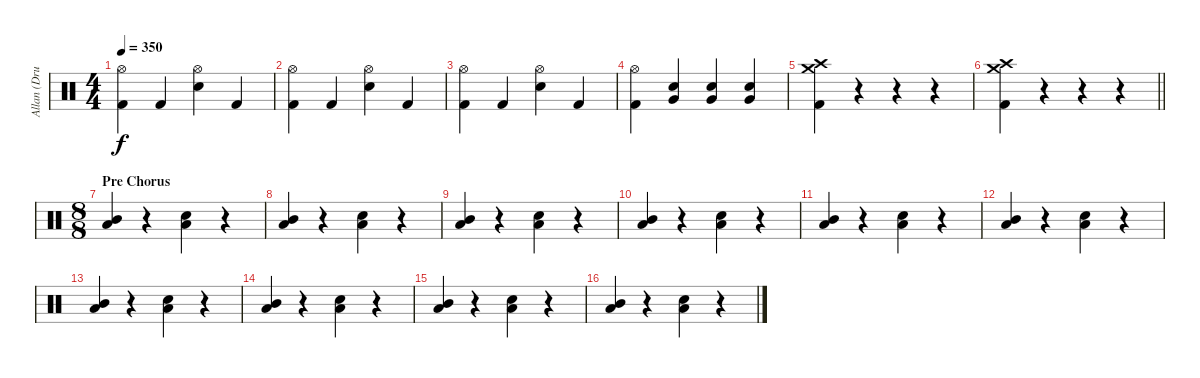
\track ("Allan (Drums)" "Allan (Dru") {solo instrument percussion}
\staff {score}
\articulation defaults
\ts (4 4)
\tempo 350
\clef neutral
\ks c
("Hi-Hat (open)" "Kick (hit) 2").4{dy f} "Kick (hit) 2".4 ("Hi-Hat (open)" "Snare (hit) 2").4 "Kick (hit) 2".4 |
("Hi-Hat (open)" "Kick (hit) 2").4 "Kick (hit) 2".4 ("Hi-Hat (open)" "Snare (hit) 2").4 "Kick (hit) 2".4 |
("Hi-Hat (open)" "Kick (hit) 2").4 "Kick (hit) 2".4 ("Hi-Hat (open)" "Snare (hit) 2").4 "Kick (hit) 2".4 |
("Hi-Hat (open)" "Kick (hit) 2").4 ("Very Low Tom (hit)" "Snare (hit) 2").4 ("Very Low Tom (hit)" "Snare (hit) 2").4 ("Very Low Tom (hit)" "Snare (hit) 2").4 |
("Crash medium (hit)" "Crash high (hit)" "Kick (hit) 2").4 r.4 r.4 r.4 |
\barLineRight lightlight
("Crash high (hit)" "Crash medium (hit)" "Kick (hit) 2").4 r.4 r.4 r.4 |
\ts (8 8)
\section ("" "Pre Chorus")
("Low Tom (hit)" "Mid Tom (hit)").4 r.4 ("Low Tom (hit)" "Snare (hit) 2").4 r.4 |
("Low Tom (hit)" "Mid Tom (hit)").4 r.4 ("Low Tom (hit)" "Snare (hit) 2").4 r.4 |
("Low Tom (hit)" "Mid Tom (hit)").4 r.4 ("Low Tom (hit)" "Snare (hit) 2").4 r.4 |
("Low Tom (hit)" "Mid Tom (hit)").4 r.4 ("Low Tom (hit)" "Snare (hit) 2").4 r.4 |
("Low Tom (hit)" "Mid Tom (hit)").4 r.4 ("Low Tom (hit)" "Snare (hit) 2").4 r.4 |
("Low Tom (hit)" "Mid Tom (hit)").4 r.4 ("Low Tom (hit)" "Snare (hit) 2").4 r.4 |
("Low Tom (hit)" "Mid Tom (hit)").4 r.4 ("Low Tom (hit)" "Snare (hit) 2").4 r.4 |
("Low Tom (hit)" "Mid Tom (hit)").4 r.4 ("Low Tom (hit)" "Snare (hit) 2").4 r.4 |
("Low Tom (hit)" "Mid Tom (hit)").4 r.4 ("Low Tom (hit)" "Snare (hit) 2").4 r.4 |
("Low Tom (hit)" "Mid Tom (hit)").4 r.4 ("Low Tom (hit)" "Snare (hit) 2").4 r.4
